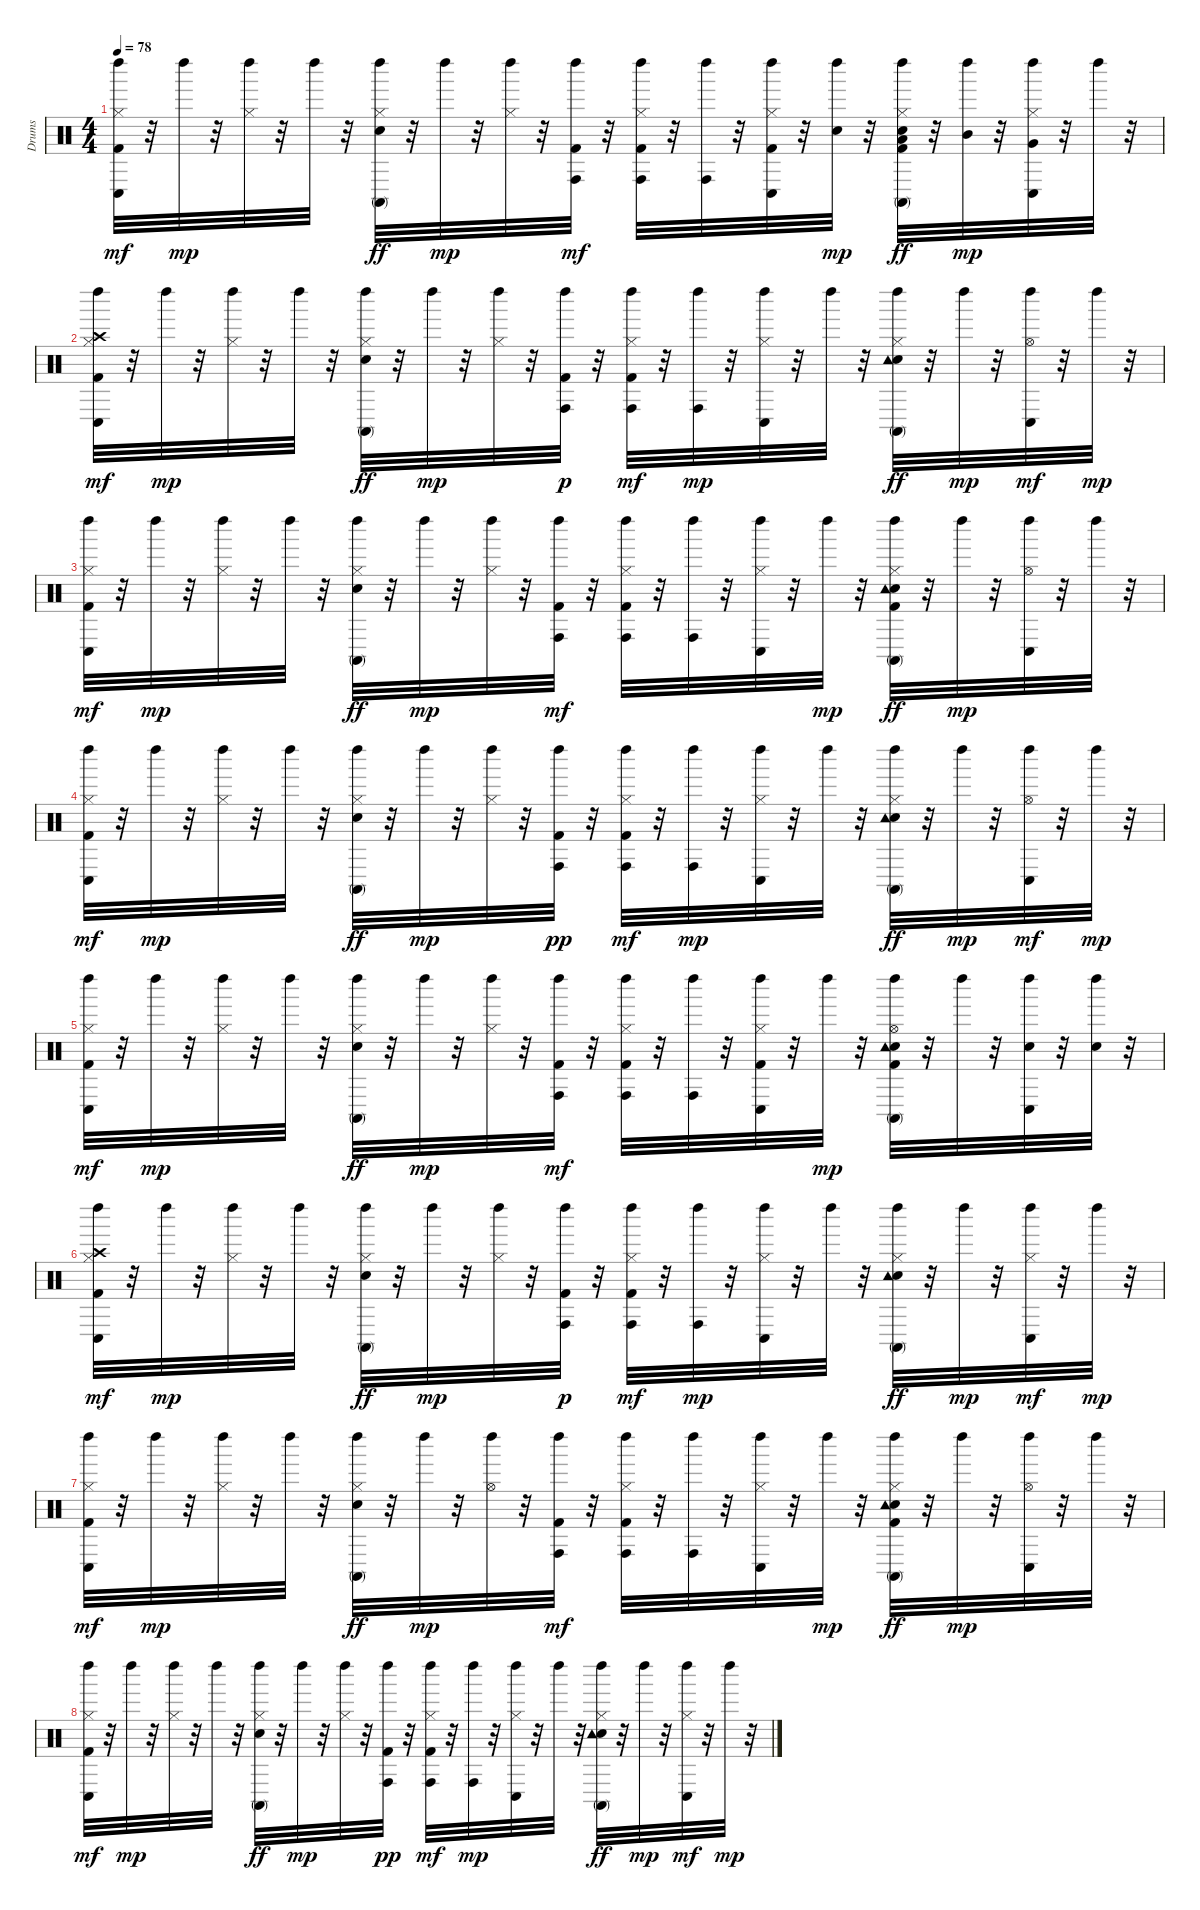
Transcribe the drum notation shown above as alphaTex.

\track ("Drums               " "Drums     ") {instrument percussion}
\staff {score}
\articulation defaults
\ts (4 4)
\tempo 78
\clef neutral
\ks c
("Kick (hit) 2" "Hi-Hat (closed)" "Left Maraca (hit)" "Conga low (hit)").32{dy mf} r.32 "Left Maraca (hit)".32{dy mp} r.32 ("Hi-Hat (closed)" "Left Maraca (hit)").32 r.32 "Left Maraca (hit)".32 r.32 ("Snare (hit) 2" "Hi-Hat (closed)" "Left Maraca (hit)" "Conga high (mute)").32{dy ff} r.32 "Left Maraca (hit)".32{dy mp} r.32 ("Hi-Hat (closed)" "Left Maraca (hit)").32 r.32 ("Kick (hit) 2" "Left Maraca (hit)" "Conga high (hit)").32{dy mf} r.32 ("Kick (hit) 2" "Hi-Hat (closed)" "Left Maraca (hit)" "Conga high (hit)").32 r.32 ("Left Maraca (hit)" "Conga high (hit)").32 r.32 ("Kick (hit) 2" "Hi-Hat (closed)" "Left Maraca (hit)" "Conga low (hit)").32 r.32 ("Snare (hit) 2" "Left Maraca (hit)").32{dy mp} r.32 ("Kick (hit) 2" "Snare (hit) 2" "Hi-Hat (closed)" "Left Maraca (hit)" "Conga high (mute)" "Low Floor Tom (hit)").32{dy ff} r.32 ("Left Maraca (hit)" "Mid Tom (hit)").32{dy mp} r.32 ("Hi-Hat (closed)" "Left Maraca (hit)" "Very Low Tom (hit)" "Conga low (hit)").32 r.32 "Left Maraca (hit)".32 r.32 |
("Kick (hit) 2" "Hi-Hat (closed)" "Left Maraca (hit)" "Crash high (hit)" "Conga low (hit)").32{dy mf} r.32 "Left Maraca (hit)".32{dy mp} r.32 ("Hi-Hat (closed)" "Left Maraca (hit)").32 r.32 "Left Maraca (hit)".32 r.32 ("Snare (hit) 2" "Hi-Hat (closed)" "Left Maraca (hit)" "Conga high (mute)").32{dy ff} r.32 "Left Maraca (hit)".32{dy mp} r.32 ("Hi-Hat (closed)" "Left Maraca (hit)").32 r.32 ("Kick (hit) 2" "Left Maraca (hit)" "Conga high (hit)").32{dy p} r.32 ("Kick (hit) 2" "Hi-Hat (closed)" "Left Maraca (hit)" "Conga high (hit)").32{dy mf} r.32 ("Left Maraca (hit)" "Conga high (hit)").32{dy mp} r.32 ("Hi-Hat (closed)" "Left Maraca (hit)" "Conga low (hit)").32 r.32 "Left Maraca (hit)".32 r.32 ("Snare (hit) 2" "Hi-Hat (closed)" "Left Maraca (hit)" "Conga high (mute)" "Tambourine (hit)").32{dy ff} r.32 "Left Maraca (hit)".32{dy mp} r.32 ("Hi-Hat (open)" "Left Maraca (hit)" "Conga low (hit)").32{dy mf} r.32 "Left Maraca (hit)".32{dy mp} r.32 |
("Kick (hit) 2" "Hi-Hat (closed)" "Left Maraca (hit)" "Conga low (hit)").32{dy mf} r.32 "Left Maraca (hit)".32{dy mp} r.32 ("Hi-Hat (closed)" "Left Maraca (hit)").32 r.32 "Left Maraca (hit)".32 r.32 ("Snare (hit) 2" "Hi-Hat (closed)" "Left Maraca (hit)" "Conga high (mute)").32{dy ff} r.32 "Left Maraca (hit)".32{dy mp} r.32 ("Hi-Hat (closed)" "Left Maraca (hit)").32 r.32 ("Kick (hit) 2" "Left Maraca (hit)" "Conga high (hit)").32{dy mf} r.32 ("Kick (hit) 2" "Hi-Hat (closed)" "Left Maraca (hit)" "Conga high (hit)").32 r.32 ("Left Maraca (hit)" "Conga high (hit)").32 r.32 ("Hi-Hat (closed)" "Left Maraca (hit)" "Conga low (hit)").32 r.32 "Left Maraca (hit)".32{dy mp} r.32 ("Kick (hit) 2" "Snare (hit) 2" "Hi-Hat (closed)" "Left Maraca (hit)" "Conga high (mute)" "Tambourine (hit)").32{dy ff} r.32 "Left Maraca (hit)".32{dy mp} r.32 ("Hi-Hat (open)" "Left Maraca (hit)" "Conga low (hit)").32 r.32 "Left Maraca (hit)".32 r.32 |
("Kick (hit) 2" "Hi-Hat (closed)" "Left Maraca (hit)" "Conga low (hit)").32{dy mf} r.32 "Left Maraca (hit)".32{dy mp} r.32 ("Hi-Hat (closed)" "Left Maraca (hit)").32 r.32 "Left Maraca (hit)".32 r.32 ("Snare (hit) 2" "Hi-Hat (closed)" "Left Maraca (hit)" "Conga high (mute)").32{dy ff} r.32 "Left Maraca (hit)".32{dy mp} r.32 ("Hi-Hat (closed)" "Left Maraca (hit)").32 r.32 ("Kick (hit) 2" "Left Maraca (hit)" "Conga high (hit)").32{dy pp} r.32 ("Kick (hit) 2" "Hi-Hat (closed)" "Left Maraca (hit)" "Conga high (hit)").32{dy mf} r.32 ("Left Maraca (hit)" "Conga high (hit)").32{dy mp} r.32 ("Hi-Hat (closed)" "Left Maraca (hit)" "Conga low (hit)").32 r.32 "Left Maraca (hit)".32 r.32 ("Snare (hit) 2" "Hi-Hat (closed)" "Left Maraca (hit)" "Conga high (mute)" "Tambourine (hit)").32{dy ff} r.32 "Left Maraca (hit)".32{dy mp} r.32 ("Hi-Hat (open)" "Left Maraca (hit)" "Conga low (hit)").32{dy mf} r.32 "Left Maraca (hit)".32{dy mp} r.32 |
("Kick (hit) 2" "Hi-Hat (closed)" "Left Maraca (hit)" "Conga low (hit)").32{dy mf} r.32 "Left Maraca (hit)".32{dy mp} r.32 ("Hi-Hat (closed)" "Left Maraca (hit)").32 r.32 "Left Maraca (hit)".32 r.32 ("Snare (hit) 2" "Hi-Hat (closed)" "Left Maraca (hit)" "Conga high (mute)").32{dy ff} r.32 "Left Maraca (hit)".32{dy mp} r.32 ("Hi-Hat (closed)" "Left Maraca (hit)").32 r.32 ("Kick (hit) 2" "Left Maraca (hit)" "Conga high (hit)").32{dy mf} r.32 ("Kick (hit) 2" "Hi-Hat (closed)" "Left Maraca (hit)" "Conga high (hit)").32 r.32 ("Left Maraca (hit)" "Conga high (hit)").32 r.32 ("Kick (hit) 2" "Hi-Hat (closed)" "Left Maraca (hit)" "Conga low (hit)").32 r.32 "Left Maraca (hit)".32{dy mp} r.32 ("Kick (hit) 2" "Snare (hit) 2" "Hi-Hat (open)" "Left Maraca (hit)" "Conga high (mute)" "Tambourine (hit)").32 r.32 "Left Maraca (hit)".32 r.32 ("Snare (hit) 2" "Left Maraca (hit)" "Conga low (hit)").32 r.32 ("Snare (hit) 2" "Left Maraca (hit)").32 r.32 |
("Kick (hit) 2" "Hi-Hat (closed)" "Left Maraca (hit)" "Crash high (hit)" "Conga low (hit)").32{dy mf} r.32 "Left Maraca (hit)".32{dy mp} r.32 ("Hi-Hat (closed)" "Left Maraca (hit)").32 r.32 "Left Maraca (hit)".32 r.32 ("Snare (hit) 2" "Hi-Hat (closed)" "Left Maraca (hit)" "Conga high (mute)").32{dy ff} r.32 "Left Maraca (hit)".32{dy mp} r.32 ("Hi-Hat (closed)" "Left Maraca (hit)").32 r.32 ("Kick (hit) 2" "Left Maraca (hit)" "Conga high (hit)").32{dy p} r.32 ("Kick (hit) 2" "Hi-Hat (closed)" "Left Maraca (hit)" "Conga high (hit)").32{dy mf} r.32 ("Left Maraca (hit)" "Conga high (hit)").32{dy mp} r.32 ("Hi-Hat (closed)" "Left Maraca (hit)" "Conga low (hit)").32 r.32 "Left Maraca (hit)".32 r.32 ("Snare (hit) 2" "Hi-Hat (closed)" "Left Maraca (hit)" "Conga high (mute)" "Tambourine (hit)").32{dy ff} r.32 "Left Maraca (hit)".32{dy mp} r.32 ("Hi-Hat (closed)" "Left Maraca (hit)" "Conga low (hit)").32{dy mf} r.32 "Left Maraca (hit)".32{dy mp} r.32 |
("Kick (hit) 2" "Hi-Hat (closed)" "Left Maraca (hit)" "Conga low (hit)").32{dy mf} r.32 "Left Maraca (hit)".32{dy mp} r.32 ("Hi-Hat (closed)" "Left Maraca (hit)").32 r.32 "Left Maraca (hit)".32 r.32 ("Snare (hit) 2" "Hi-Hat (closed)" "Left Maraca (hit)" "Conga high (mute)").32{dy ff} r.32 "Left Maraca (hit)".32{dy mp} r.32 ("Hi-Hat (open)" "Left Maraca (hit)").32 r.32 ("Kick (hit) 2" "Left Maraca (hit)" "Conga high (hit)").32{dy mf} r.32 ("Kick (hit) 2" "Hi-Hat (closed)" "Left Maraca (hit)" "Conga high (hit)").32 r.32 ("Left Maraca (hit)" "Conga high (hit)").32 r.32 ("Hi-Hat (closed)" "Left Maraca (hit)" "Conga low (hit)").32 r.32 "Left Maraca (hit)".32{dy mp} r.32 ("Kick (hit) 2" "Snare (hit) 2" "Hi-Hat (closed)" "Left Maraca (hit)" "Conga high (mute)" "Tambourine (hit)").32{dy ff} r.32 "Left Maraca (hit)".32{dy mp} r.32 ("Hi-Hat (open)" "Left Maraca (hit)" "Conga low (hit)").32 r.32 "Left Maraca (hit)".32 r.32 |
("Kick (hit) 2" "Hi-Hat (closed)" "Left Maraca (hit)" "Conga low (hit)").32{dy mf} r.32 "Left Maraca (hit)".32{dy mp} r.32 ("Hi-Hat (closed)" "Left Maraca (hit)").32 r.32 "Left Maraca (hit)".32 r.32 ("Snare (hit) 2" "Hi-Hat (closed)" "Left Maraca (hit)" "Conga high (mute)").32{dy ff} r.32 "Left Maraca (hit)".32{dy mp} r.32 ("Hi-Hat (closed)" "Left Maraca (hit)").32 r.32 ("Kick (hit) 2" "Left Maraca (hit)" "Conga high (hit)").32{dy pp} r.32 ("Kick (hit) 2" "Hi-Hat (closed)" "Left Maraca (hit)" "Conga high (hit)").32{dy mf} r.32 ("Left Maraca (hit)" "Conga high (hit)").32{dy mp} r.32 ("Hi-Hat (closed)" "Left Maraca (hit)" "Conga low (hit)").32 r.32 "Left Maraca (hit)".32 r.32 ("Snare (hit) 2" "Hi-Hat (closed)" "Left Maraca (hit)" "Conga high (mute)" "Tambourine (hit)").32{dy ff} r.32 "Left Maraca (hit)".32{dy mp} r.32 ("Hi-Hat (closed)" "Left Maraca (hit)" "Conga low (hit)").32{dy mf} r.32 "Left Maraca (hit)".32{dy mp} r.32
